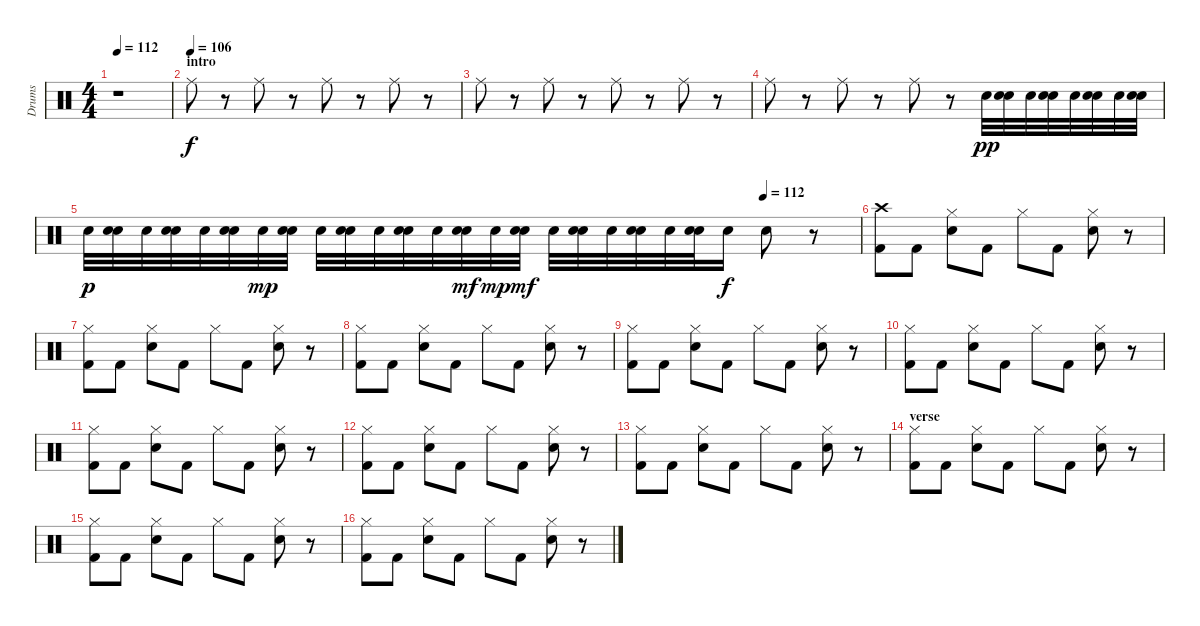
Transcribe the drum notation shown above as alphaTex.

\track ("Drums" "Drums") {instrument percussion}
\staff {score}
\articulation defaults
\ts (4 4)
\tempo 112
\clef neutral
\ks c
r.1{dy f} |
\section ("" "intro")
\tempo (106)
"Ride (middle)".8 r.8 "Ride (middle)".8 r.8 "Ride (middle)".8 r.8 "Ride (middle)".8 r.8 |
"Ride (middle)".8 r.8 "Ride (middle)".8 r.8 "Ride (middle)".8 r.8 "Ride (middle)".8 r.8 |
"Ride (middle)".8 r.8 "Ride (middle)".8 r.8 "Ride (middle)".8 r.8 "Snare (hit) 2".32{dy pp} ("Snare (hit) 2" "Snare (hit) 2").32 "Snare (hit) 2".32 ("Snare (hit) 2" "Snare (hit) 2").32 "Snare (hit) 2".32 ("Snare (hit) 2" "Snare (hit) 2").32 "Snare (hit) 2".32 ("Snare (hit) 2" "Snare (hit) 2").32 |
\tempo (112 0.875)
"Snare (hit) 2".32{dy p} ("Snare (hit) 2" "Snare (hit) 2").32 "Snare (hit) 2".32 ("Snare (hit) 2" "Snare (hit) 2").32 "Snare (hit) 2".32 ("Snare (hit) 2" "Snare (hit) 2").32 "Snare (hit) 2".32{dy mp} ("Snare (hit) 2" "Snare (hit) 2").32 "Snare (hit) 2".32 ("Snare (hit) 2" "Snare (hit) 2").32 "Snare (hit) 2".32 ("Snare (hit) 2" "Snare (hit) 2").32 "Snare (hit) 2".32 ("Snare (hit) 2" "Snare (hit) 2").32{dy mf} "Snare (hit) 2".32{dy mp} ("Snare (hit) 2" "Snare (hit) 2").32{dy mf} "Snare (hit) 2".32 ("Snare (hit) 2" "Snare (hit) 2").32 "Snare (hit) 2".32 ("Snare (hit) 2" "Snare (hit) 2").32 "Snare (hit) 2".32 ("Snare (hit) 2" "Snare (hit) 2").32 "Snare (hit) 2".16{dy f} "Snare (hit) 2".8 r.8 |
("Crash high (hit)" "Kick (hit) 2").8 "Kick (hit) 2".8 ("Hi-Hat (closed)" "Snare (hit) 2").8 "Kick (hit) 2".8 "Hi-Hat (closed)".8 "Kick (hit) 2".8 ("Snare (hit) 2" "Hi-Hat (closed)").8 r.8 |
("Hi-Hat (closed)" "Kick (hit) 2").8 "Kick (hit) 2".8 ("Hi-Hat (closed)" "Snare (hit) 2").8 "Kick (hit) 2".8 "Hi-Hat (closed)".8 "Kick (hit) 2".8 ("Snare (hit) 2" "Hi-Hat (closed)").8 r.8 |
("Hi-Hat (closed)" "Kick (hit) 2").8 "Kick (hit) 2".8 ("Hi-Hat (closed)" "Snare (hit) 2").8 "Kick (hit) 2".8 "Hi-Hat (closed)".8 "Kick (hit) 2".8 ("Snare (hit) 2" "Hi-Hat (closed)").8 r.8 |
("Hi-Hat (closed)" "Kick (hit) 2").8 "Kick (hit) 2".8 ("Hi-Hat (closed)" "Snare (hit) 2").8 "Kick (hit) 2".8 "Hi-Hat (closed)".8 "Kick (hit) 2".8 ("Snare (hit) 2" "Hi-Hat (closed)").8 r.8 |
("Hi-Hat (closed)" "Kick (hit) 2").8 "Kick (hit) 2".8 ("Hi-Hat (closed)" "Snare (hit) 2").8 "Kick (hit) 2".8 "Hi-Hat (closed)".8 "Kick (hit) 2".8 ("Snare (hit) 2" "Hi-Hat (closed)").8 r.8 |
("Hi-Hat (closed)" "Kick (hit) 2").8 "Kick (hit) 2".8 ("Hi-Hat (closed)" "Snare (hit) 2").8 "Kick (hit) 2".8 "Hi-Hat (closed)".8 "Kick (hit) 2".8 ("Snare (hit) 2" "Hi-Hat (closed)").8 r.8 |
("Hi-Hat (closed)" "Kick (hit) 2").8 "Kick (hit) 2".8 ("Hi-Hat (closed)" "Snare (hit) 2").8 "Kick (hit) 2".8 "Hi-Hat (closed)".8 "Kick (hit) 2".8 ("Snare (hit) 2" "Hi-Hat (closed)").8 r.8 |
("Hi-Hat (closed)" "Kick (hit) 2").8 "Kick (hit) 2".8 ("Hi-Hat (closed)" "Snare (hit) 2").8 "Kick (hit) 2".8 "Hi-Hat (closed)".8 "Kick (hit) 2".8 ("Snare (hit) 2" "Hi-Hat (closed)").8 r.8 |
\section ("" "verse")
("Hi-Hat (closed)" "Kick (hit) 2").8 "Kick (hit) 2".8 ("Hi-Hat (closed)" "Snare (hit) 2").8 "Kick (hit) 2".8 "Hi-Hat (closed)".8 "Kick (hit) 2".8 ("Snare (hit) 2" "Hi-Hat (closed)").8 r.8 |
("Hi-Hat (closed)" "Kick (hit) 2").8 "Kick (hit) 2".8 ("Hi-Hat (closed)" "Snare (hit) 2").8 "Kick (hit) 2".8 "Hi-Hat (closed)".8 "Kick (hit) 2".8 ("Snare (hit) 2" "Hi-Hat (closed)").8 r.8 |
("Hi-Hat (closed)" "Kick (hit) 2").8 "Kick (hit) 2".8 ("Hi-Hat (closed)" "Snare (hit) 2").8 "Kick (hit) 2".8 "Hi-Hat (closed)".8 "Kick (hit) 2".8 ("Snare (hit) 2" "Hi-Hat (closed)").8 r.8
